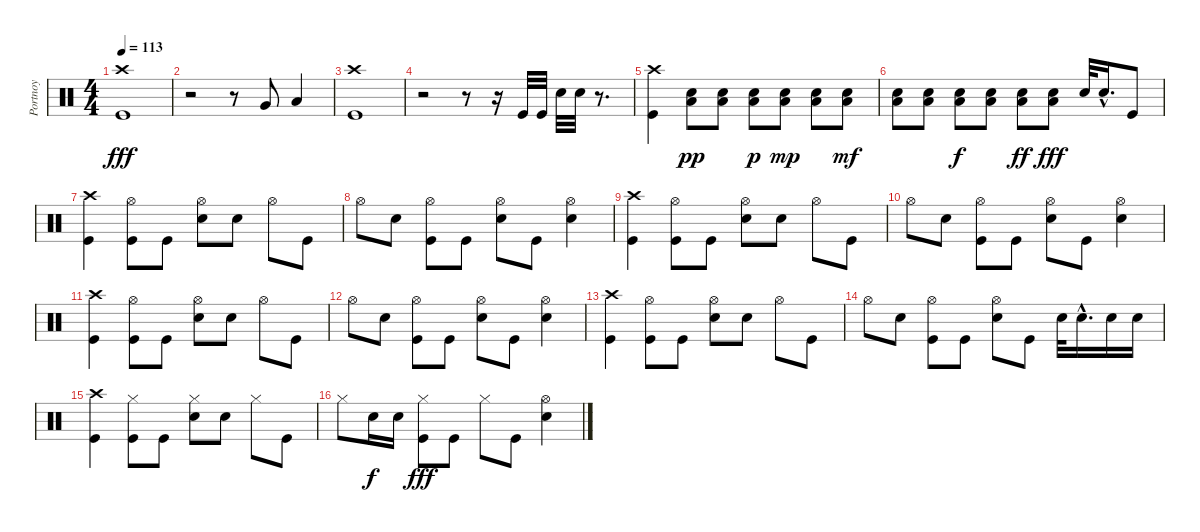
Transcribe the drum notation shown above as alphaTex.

\track ("Portnoy" "Portnoy") {instrument percussion}
\staff {score}
\articulation defaults
\ts (4 4)
\tempo 113
\clef neutral
\ks c
("Crash high (hit)" "Kick (hit)").1{dy fff} |
r.2 r.8 "Very Low Tom (hit)".8 "Low Floor Tom (hit)".4 |
("Crash high (hit)" "Kick (hit)").1 |
r.2 r.8 r.16 "Kick (hit)".32 "Kick (hit)".32 "Snare (hit) 2".32 "Snare (hit) 2".32 r.8{d} |
("Crash high (hit)" "Kick (hit)").4 ("Low Floor Tom (hit)" "Snare (hit) 2").8{dy pp} ("Low Floor Tom (hit)" "Snare (hit) 2").8 ("Low Floor Tom (hit)" "Snare (hit) 2").8{dy p} ("Low Floor Tom (hit)" "Snare (hit) 2").8{dy mp} ("Low Floor Tom (hit)" "Snare (hit) 2").8 ("Low Floor Tom (hit)" "Snare (hit) 2").8{dy mf} |
("Snare (hit) 2" "Low Floor Tom (hit)").8 ("Snare (hit) 2" "Low Floor Tom (hit)").8 ("Snare (hit) 2" "Low Floor Tom (hit)").8{dy f} ("Snare (hit) 2" "Low Floor Tom (hit)").8 ("Snare (hit) 2" "Low Floor Tom (hit)").8{dy ff} ("Snare (hit) 2" "Low Floor Tom (hit)").8{dy fff} "Snare (hit) 2".32 "Snare (hit) 2"{hac}.16{d} "Kick (hit)".8 |
("Crash high (hit)" "Kick (hit)").4 ("Hi-Hat (open)" "Kick (hit)").8 "Kick (hit)".8 ("Hi-Hat (open)" "Snare (hit) 2").8 "Snare (hit) 2".8 "Hi-Hat (open)".8 "Kick (hit)".8 |
"Hi-Hat (open)".8 "Snare (hit) 2".8 ("Hi-Hat (open)" "Kick (hit)").8 "Kick (hit)".8 ("Hi-Hat (open)" "Snare (hit) 2").8 "Kick (hit)".8 ("Hi-Hat (open)" "Snare (hit) 2").4 |
("Crash high (hit)" "Kick (hit)").4 ("Hi-Hat (open)" "Kick (hit)").8 "Kick (hit)".8 ("Hi-Hat (open)" "Snare (hit) 2").8 "Snare (hit) 2".8 "Hi-Hat (open)".8 "Kick (hit)".8 |
"Hi-Hat (open)".8 "Snare (hit) 2".8 ("Hi-Hat (open)" "Kick (hit)").8 "Kick (hit)".8 ("Hi-Hat (open)" "Snare (hit) 2").8 "Kick (hit)".8 ("Hi-Hat (open)" "Snare (hit) 2").4 |
("Crash high (hit)" "Kick (hit)").4 ("Hi-Hat (open)" "Kick (hit)").8 "Kick (hit)".8 ("Hi-Hat (open)" "Snare (hit) 2").8 "Snare (hit) 2".8 "Hi-Hat (open)".8 "Kick (hit)".8 |
"Hi-Hat (open)".8 "Snare (hit) 2".8 ("Hi-Hat (open)" "Kick (hit)").8 "Kick (hit)".8 ("Hi-Hat (open)" "Snare (hit) 2").8 "Kick (hit)".8 ("Hi-Hat (open)" "Snare (hit) 2").4 |
("Crash high (hit)" "Kick (hit)").4 ("Hi-Hat (open)" "Kick (hit)").8 "Kick (hit)".8 ("Hi-Hat (open)" "Snare (hit) 2").8 "Snare (hit) 2".8 "Hi-Hat (open)".8 "Kick (hit)".8 |
"Hi-Hat (open)".8 "Snare (hit) 2".8 ("Hi-Hat (open)" "Kick (hit)").8 "Kick (hit)".8 ("Hi-Hat (open)" "Snare (hit) 2").8 "Kick (hit)".8 "Snare (hit) 2".32 "Snare (hit) 2"{hac}.16{d} "Snare (hit) 2".16 "Snare (hit) 2".16 |
("Crash high (hit)" "Kick (hit)").4 ("Hi-Hat (closed)" "Kick (hit)").8 "Kick (hit)".8 ("Hi-Hat (closed)" "Snare (hit) 2").8 "Snare (hit) 2".8 "Hi-Hat (closed)".8 "Kick (hit)".8 |
"Hi-Hat (closed)".8 "Snare (hit) 2".16{dy f} "Snare (hit) 2".16 ("Hi-Hat (closed)" "Kick (hit)").8{dy fff} "Kick (hit)".8 "Hi-Hat (closed)".8 "Kick (hit)".8 ("Hi-Hat (open)" "Snare (hit) 2").4
